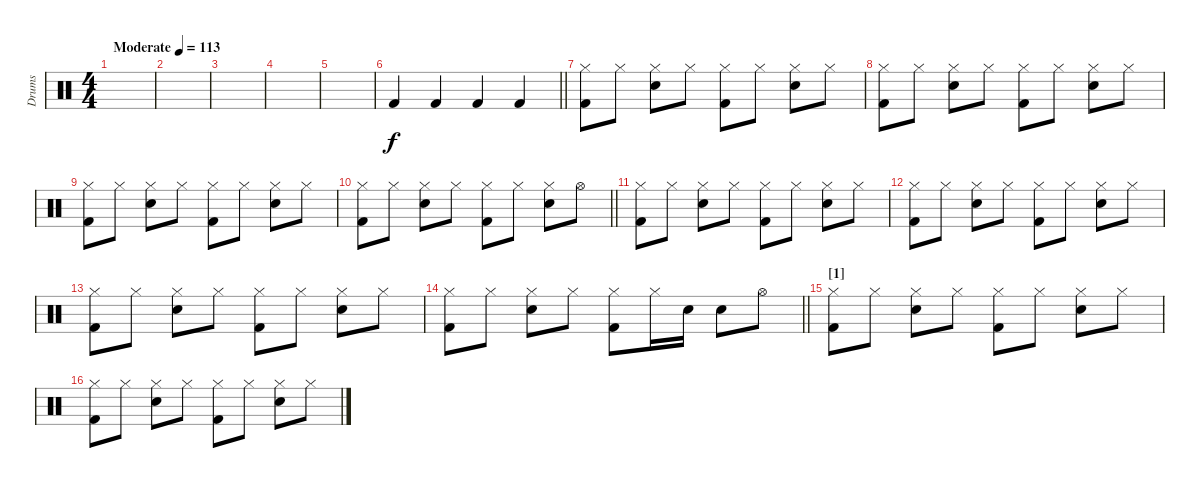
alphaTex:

\track ("Drums" "Drums") {instrument percussion}
\staff {score}
\articulation defaults
\ts (4 4)
\tempo (113 "Moderate")
\clef neutral
\ks c
|
|
|
|
|
\barLineRight lightlight "Kick (hit) 2".4 "Kick (hit) 2".4 "Kick (hit) 2".4 "Kick (hit) 2".4
|
\section ("" "")
("Hi-Hat (closed)" "Kick (hit) 2").8 "Hi-Hat (closed)".8 ("Hi-Hat (closed)" "Electric Snare (hit)").8 "Hi-Hat (closed)".8 ("Hi-Hat (closed)" "Kick (hit) 2").8 "Hi-Hat (closed)".8 ("Hi-Hat (closed)" "Electric Snare (hit)").8 "Hi-Hat (closed)".8 |
("Hi-Hat (closed)" "Kick (hit) 2").8 "Hi-Hat (closed)".8 ("Hi-Hat (closed)" "Electric Snare (hit)").8 "Hi-Hat (closed)".8 ("Hi-Hat (closed)" "Kick (hit) 2").8 "Hi-Hat (closed)".8 ("Hi-Hat (closed)" "Electric Snare (hit)").8 "Hi-Hat (closed)".8 |
("Hi-Hat (closed)" "Kick (hit) 2").8 "Hi-Hat (closed)".8 ("Hi-Hat (closed)" "Electric Snare (hit)").8 "Hi-Hat (closed)".8 ("Hi-Hat (closed)" "Kick (hit) 2").8 "Hi-Hat (closed)".8 ("Hi-Hat (closed)" "Electric Snare (hit)").8 "Hi-Hat (closed)".8 |
\barLineRight lightlight
("Hi-Hat (closed)" "Kick (hit) 2").8 "Hi-Hat (closed)".8 ("Hi-Hat (closed)" "Electric Snare (hit)").8 "Hi-Hat (closed)".8 ("Hi-Hat (closed)" "Kick (hit) 2").8 "Hi-Hat (closed)".8 ("Hi-Hat (closed)" "Electric Snare (hit)").8 "Hi-Hat (open)".8 |
\section ("" "")
("Hi-Hat (closed)" "Kick (hit) 2").8 "Hi-Hat (closed)".8 ("Hi-Hat (closed)" "Electric Snare (hit)").8 "Hi-Hat (closed)".8 ("Hi-Hat (closed)" "Kick (hit) 2").8 "Hi-Hat (closed)".8 ("Hi-Hat (closed)" "Electric Snare (hit)").8 "Hi-Hat (closed)".8 |
("Hi-Hat (closed)" "Kick (hit) 2").8 "Hi-Hat (closed)".8 ("Hi-Hat (closed)" "Electric Snare (hit)").8 "Hi-Hat (closed)".8 ("Hi-Hat (closed)" "Kick (hit) 2").8 "Hi-Hat (closed)".8 ("Hi-Hat (closed)" "Electric Snare (hit)").8 "Hi-Hat (closed)".8 |
("Hi-Hat (closed)" "Kick (hit) 2").8 "Hi-Hat (closed)".8 ("Hi-Hat (closed)" "Electric Snare (hit)").8 "Hi-Hat (closed)".8 ("Hi-Hat (closed)" "Kick (hit) 2").8 "Hi-Hat (closed)".8 ("Hi-Hat (closed)" "Electric Snare (hit)").8 "Hi-Hat (closed)".8 |
\barLineRight lightlight
("Hi-Hat (closed)" "Kick (hit) 2").8 "Hi-Hat (closed)".8 ("Hi-Hat (closed)" "Electric Snare (hit)").8 "Hi-Hat (closed)".8 ("Hi-Hat (closed)" "Kick (hit) 2").8 "Hi-Hat (closed)".16 "Electric Snare (hit)".16 "Electric Snare (hit)".8 "Hi-Hat (open)".8 |
\section ("" "[1]")
("Hi-Hat (closed)" "Kick (hit) 2").8 "Hi-Hat (closed)".8 ("Hi-Hat (closed)" "Electric Snare (hit)").8 "Hi-Hat (closed)".8 ("Hi-Hat (closed)" "Kick (hit) 2").8 "Hi-Hat (closed)".8 ("Hi-Hat (closed)" "Electric Snare (hit)").8 "Hi-Hat (closed)".8 |
("Hi-Hat (closed)" "Kick (hit) 2").8 "Hi-Hat (closed)".8 ("Hi-Hat (closed)" "Electric Snare (hit)").8 "Hi-Hat (closed)".8 ("Hi-Hat (closed)" "Kick (hit) 2").8 "Hi-Hat (closed)".8 ("Hi-Hat (closed)" "Electric Snare (hit)").8 "Hi-Hat (closed)".8
